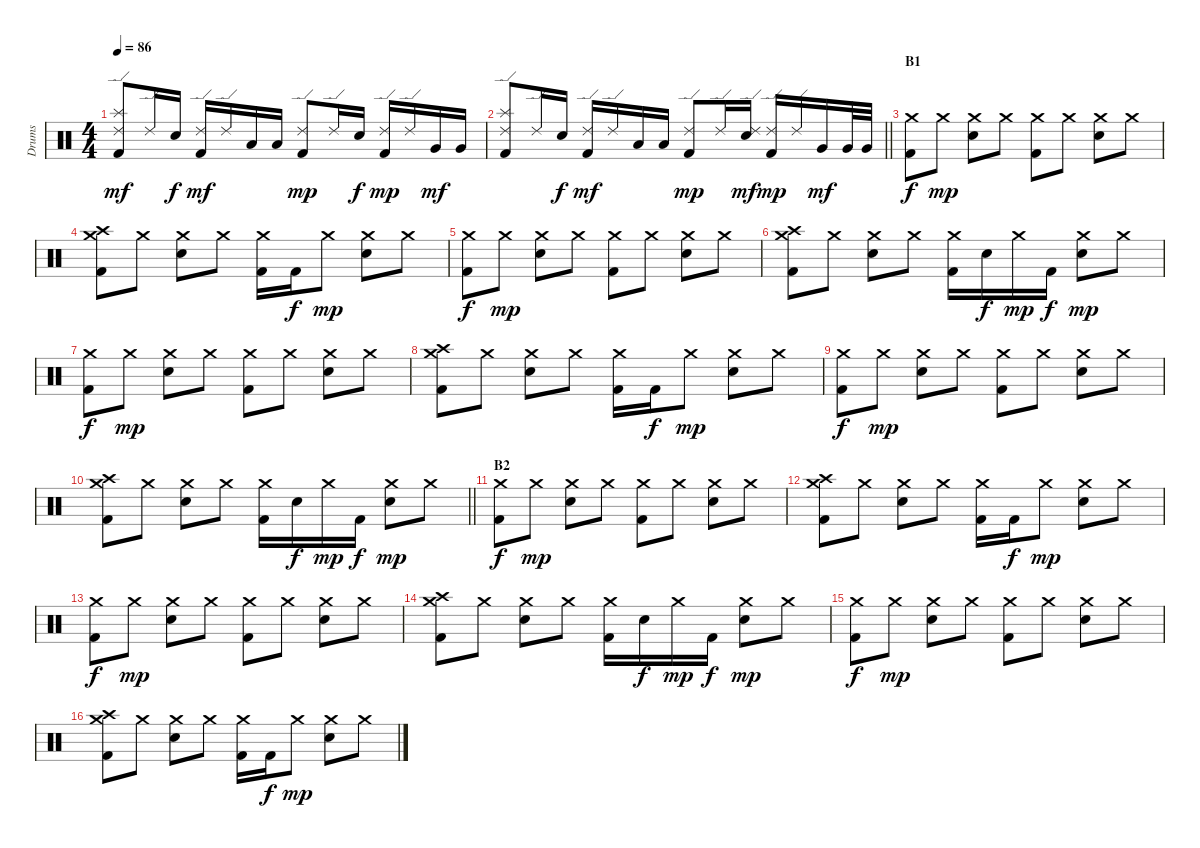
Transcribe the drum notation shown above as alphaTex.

\track ("Drums" "Drums") {instrument percussion}
\staff {score}
\articulation defaults
\ts (4 4)
\tempo 86
\clef neutral
\ks c
("Ride (edge) 2" "Splash (hit)" "Kick (hit) 2").8{dy mf} "Ride (edge) 2".16 "Electric Snare (hit)".16{dy f} ("Ride (edge) 2" "Kick (hit) 2").16{dy mf} "Ride (edge) 2".16 "Low Tom (hit)".16 "Low Tom (hit)".16 ("Ride (edge) 2" "Kick (hit) 2").8{dy mp} "Ride (edge) 2".16 "Electric Snare (hit)".16{dy f} ("Ride (edge) 2" "Kick (hit) 2").16{dy mp} "Ride (edge) 2".16 "Very Low Tom (hit)".16{dy mf} "Very Low Tom (hit)".16 |
\barLineRight lightlight
("Ride (edge) 2" "Splash (hit)" "Kick (hit) 2").8 "Ride (edge) 2".16 "Electric Snare (hit)".16{dy f} ("Ride (edge) 2" "Kick (hit) 2").16{dy mf} "Ride (edge) 2".16 "Low Tom (hit)".16 "Low Tom (hit)".16 ("Ride (edge) 2" "Kick (hit) 2").8{dy mp} "Ride (edge) 2".16 ("Ride (edge) 2" "Electric Snare (hit)").16{dy mf} ("Ride (edge) 2" "Kick (hit) 2").16{dy mp} "Ride (edge) 2".16 "Very Low Tom (hit)".16{dy mf} "Very Low Tom (hit)".32 "Very Low Tom (hit)".32 |
\section ("" "B1")
("Crash medium (hit)" "Kick (hit) 2").8{dy f} "Crash medium (hit)".8{dy mp} ("Crash medium (hit)" "Electric Snare (hit)").8 "Crash medium (hit)".8 ("Crash medium (hit)" "Kick (hit) 2").8 "Crash medium (hit)".8 ("Crash medium (hit)" "Electric Snare (hit)").8 "Crash medium (hit)".8 |
("Crash medium (hit)" "Crash high (hit)" "Kick (hit) 2").8 "Crash medium (hit)".8 ("Crash medium (hit)" "Electric Snare (hit)").8 "Crash medium (hit)".8 ("Crash medium (hit)" "Kick (hit) 2").16 "Kick (hit) 2".16{dy f} "Crash medium (hit)".8{dy mp} ("Crash medium (hit)" "Electric Snare (hit)").8 "Crash medium (hit)".8 |
("Crash medium (hit)" "Kick (hit) 2").8{dy f} "Crash medium (hit)".8{dy mp} ("Crash medium (hit)" "Electric Snare (hit)").8 "Crash medium (hit)".8 ("Crash medium (hit)" "Kick (hit) 2").8 "Crash medium (hit)".8 ("Crash medium (hit)" "Electric Snare (hit)").8 "Crash medium (hit)".8 |
("Crash medium (hit)" "Crash high (hit)" "Kick (hit) 2").8 "Crash medium (hit)".8 ("Crash medium (hit)" "Electric Snare (hit)").8 "Crash medium (hit)".8 ("Crash medium (hit)" "Kick (hit) 2").16 "Electric Snare (hit)".16{dy f} "Crash medium (hit)".16{dy mp} "Kick (hit) 2".16{dy f} ("Crash medium (hit)" "Electric Snare (hit)").8{dy mp} "Crash medium (hit)".8 |
("Crash medium (hit)" "Kick (hit) 2").8{dy f} "Crash medium (hit)".8{dy mp} ("Crash medium (hit)" "Electric Snare (hit)").8 "Crash medium (hit)".8 ("Crash medium (hit)" "Kick (hit) 2").8 "Crash medium (hit)".8 ("Crash medium (hit)" "Electric Snare (hit)").8 "Crash medium (hit)".8 |
("Crash medium (hit)" "Crash high (hit)" "Kick (hit) 2").8 "Crash medium (hit)".8 ("Crash medium (hit)" "Electric Snare (hit)").8 "Crash medium (hit)".8 ("Crash medium (hit)" "Kick (hit) 2").16 "Kick (hit) 2".16{dy f} "Crash medium (hit)".8{dy mp} ("Crash medium (hit)" "Electric Snare (hit)").8 "Crash medium (hit)".8 |
("Crash medium (hit)" "Kick (hit) 2").8{dy f} "Crash medium (hit)".8{dy mp} ("Crash medium (hit)" "Electric Snare (hit)").8 "Crash medium (hit)".8 ("Crash medium (hit)" "Kick (hit) 2").8 "Crash medium (hit)".8 ("Crash medium (hit)" "Electric Snare (hit)").8 "Crash medium (hit)".8 |
\barLineRight lightlight
("Crash medium (hit)" "Crash high (hit)" "Kick (hit) 2").8 "Crash medium (hit)".8 ("Crash medium (hit)" "Electric Snare (hit)").8 "Crash medium (hit)".8 ("Crash medium (hit)" "Kick (hit) 2").16 "Electric Snare (hit)".16{dy f} "Crash medium (hit)".16{dy mp} "Kick (hit) 2".16{dy f} ("Crash medium (hit)" "Electric Snare (hit)").8{dy mp} "Crash medium (hit)".8 |
\section ("" "B2")
("Crash medium (hit)" "Kick (hit) 2").8{dy f} "Crash medium (hit)".8{dy mp} ("Crash medium (hit)" "Electric Snare (hit)").8 "Crash medium (hit)".8 ("Crash medium (hit)" "Kick (hit) 2").8 "Crash medium (hit)".8 ("Crash medium (hit)" "Electric Snare (hit)").8 "Crash medium (hit)".8 |
("Crash medium (hit)" "Crash high (hit)" "Kick (hit) 2").8 "Crash medium (hit)".8 ("Crash medium (hit)" "Electric Snare (hit)").8 "Crash medium (hit)".8 ("Crash medium (hit)" "Kick (hit) 2").16 "Kick (hit) 2".16{dy f} "Crash medium (hit)".8{dy mp} ("Crash medium (hit)" "Electric Snare (hit)").8 "Crash medium (hit)".8 |
("Crash medium (hit)" "Kick (hit) 2").8{dy f} "Crash medium (hit)".8{dy mp} ("Crash medium (hit)" "Electric Snare (hit)").8 "Crash medium (hit)".8 ("Crash medium (hit)" "Kick (hit) 2").8 "Crash medium (hit)".8 ("Crash medium (hit)" "Electric Snare (hit)").8 "Crash medium (hit)".8 |
("Crash medium (hit)" "Crash high (hit)" "Kick (hit) 2").8 "Crash medium (hit)".8 ("Crash medium (hit)" "Electric Snare (hit)").8 "Crash medium (hit)".8 ("Crash medium (hit)" "Kick (hit) 2").16 "Electric Snare (hit)".16{dy f} "Crash medium (hit)".16{dy mp} "Kick (hit) 2".16{dy f} ("Crash medium (hit)" "Electric Snare (hit)").8{dy mp} "Crash medium (hit)".8 |
("Crash medium (hit)" "Kick (hit) 2").8{dy f} "Crash medium (hit)".8{dy mp} ("Crash medium (hit)" "Electric Snare (hit)").8 "Crash medium (hit)".8 ("Crash medium (hit)" "Kick (hit) 2").8 "Crash medium (hit)".8 ("Crash medium (hit)" "Electric Snare (hit)").8 "Crash medium (hit)".8 |
("Crash medium (hit)" "Crash high (hit)" "Kick (hit) 2").8 "Crash medium (hit)".8 ("Crash medium (hit)" "Electric Snare (hit)").8 "Crash medium (hit)".8 ("Crash medium (hit)" "Kick (hit) 2").16 "Kick (hit) 2".16{dy f} "Crash medium (hit)".8{dy mp} ("Crash medium (hit)" "Electric Snare (hit)").8 "Crash medium (hit)".8
